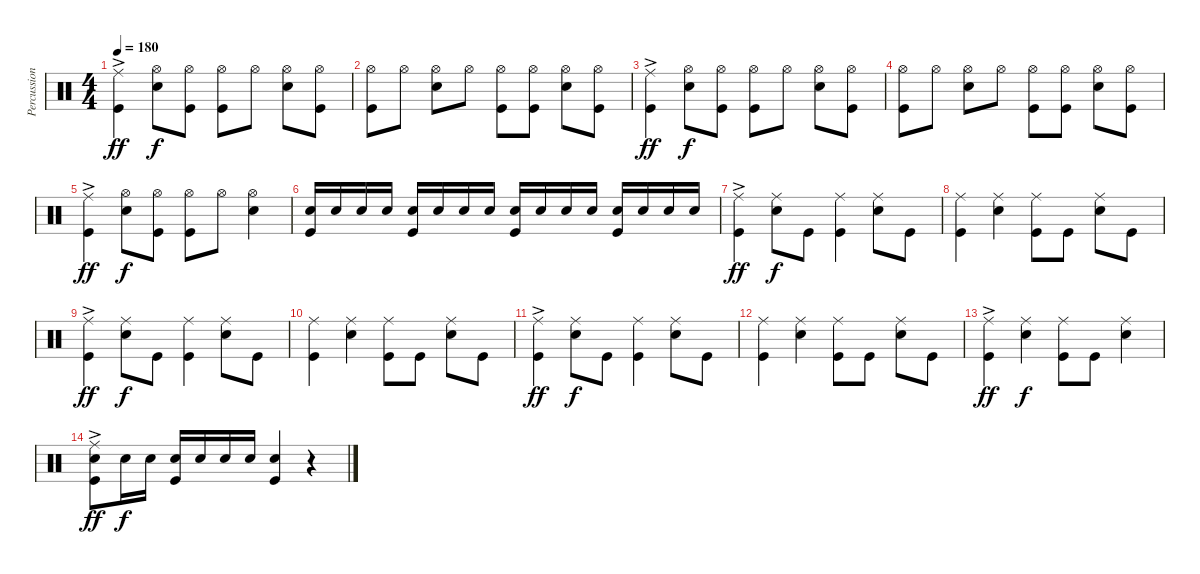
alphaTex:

\track ("Percussion" "Percussion") {instrument percussion}
\staff {score}
\articulation defaults
\ts (4 4)
\tempo 180
\clef neutral
\ks c
("Ride (middle)"{ac} "Kick (hit)").4{dy ff} ("Hi-Hat (open)" "Snare (hit) 2").8{dy f} ("Hi-Hat (open)" "Kick (hit)").8 ("Hi-Hat (open)" "Kick (hit)").8 "Hi-Hat (open)".8 ("Hi-Hat (open)" "Snare (hit) 2").8 ("Hi-Hat (open)" "Kick (hit)").8 |
("Hi-Hat (open)" "Kick (hit)").8 "Hi-Hat (open)".8 ("Hi-Hat (open)" "Snare (hit) 2").8 "Hi-Hat (open)".8 ("Hi-Hat (open)" "Kick (hit)").8 ("Hi-Hat (open)" "Kick (hit)").8 ("Hi-Hat (open)" "Snare (hit) 2").8 ("Hi-Hat (open)" "Kick (hit)").8 |
("Ride (middle)"{ac} "Kick (hit)").4{dy ff} ("Hi-Hat (open)" "Snare (hit) 2").8{dy f} ("Hi-Hat (open)" "Kick (hit)").8 ("Hi-Hat (open)" "Kick (hit)").8 "Hi-Hat (open)".8 ("Hi-Hat (open)" "Snare (hit) 2").8 ("Hi-Hat (open)" "Kick (hit)").8 |
("Hi-Hat (open)" "Kick (hit)").8 "Hi-Hat (open)".8 ("Hi-Hat (open)" "Snare (hit) 2").8 "Hi-Hat (open)".8 ("Hi-Hat (open)" "Kick (hit)").8 ("Hi-Hat (open)" "Kick (hit)").8 ("Hi-Hat (open)" "Snare (hit) 2").8 ("Hi-Hat (open)" "Kick (hit)").8 |
("Ride (middle)"{ac} "Kick (hit)").4{dy ff} ("Hi-Hat (open)" "Snare (hit) 2").8{dy f} ("Hi-Hat (open)" "Kick (hit)").8 ("Hi-Hat (open)" "Kick (hit)").8 "Hi-Hat (open)".8 ("Hi-Hat (open)" "Snare (hit) 2").4 |
("Snare (hit) 2" "Kick (hit)").16 "Snare (hit) 2".16 "Snare (hit) 2".16 "Snare (hit) 2".16 ("Snare (hit) 2" "Kick (hit)").16 "Snare (hit) 2".16 "Snare (hit) 2".16 "Snare (hit) 2".16 ("Snare (hit) 2" "Kick (hit)").16 "Snare (hit) 2".16 "Snare (hit) 2".16 "Snare (hit) 2".16 ("Snare (hit) 2" "Kick (hit)").16 "Snare (hit) 2".16 "Snare (hit) 2".16 "Snare (hit) 2".16 |
("Ride (middle)"{ac} "Kick (hit)").4{dy ff} ("Ride (middle)" "Snare (hit) 2").8{dy f} "Kick (hit)".8 ("Ride (middle)" "Kick (hit)").4 ("Ride (middle)" "Snare (hit) 2").8 "Kick (hit)".8 |
("Ride (middle)" "Kick (hit)").4 ("Ride (middle)" "Snare (hit) 2").4 ("Ride (middle)" "Kick (hit)").8 "Kick (hit)".8 ("Ride (middle)" "Snare (hit) 2").8 "Kick (hit)".8 |
("Ride (middle)"{ac} "Kick (hit)").4{dy ff} ("Ride (middle)" "Snare (hit) 2").8{dy f} "Kick (hit)".8 ("Ride (middle)" "Kick (hit)").4 ("Ride (middle)" "Snare (hit) 2").8 "Kick (hit)".8 |
("Ride (middle)" "Kick (hit)").4 ("Ride (middle)" "Snare (hit) 2").4 ("Ride (middle)" "Kick (hit)").8 "Kick (hit)".8 ("Ride (middle)" "Snare (hit) 2").8 "Kick (hit)".8 |
("Ride (middle)"{ac} "Kick (hit)").4{dy ff} ("Ride (middle)" "Snare (hit) 2").8{dy f} "Kick (hit)".8 ("Ride (middle)" "Kick (hit)").4 ("Ride (middle)" "Snare (hit) 2").8 "Kick (hit)".8 |
("Ride (middle)" "Kick (hit)").4 ("Ride (middle)" "Snare (hit) 2").4 ("Ride (middle)" "Kick (hit)").8 "Kick (hit)".8 ("Ride (middle)" "Snare (hit) 2").8 "Kick (hit)".8 |
("Ride (middle)"{ac} "Kick (hit)").4{dy ff} ("Ride (middle)" "Snare (hit) 2").4{dy f} ("Ride (middle)" "Kick (hit)").8 "Kick (hit)".8 ("Ride (middle)" "Snare (hit) 2").4 |
("Ride (middle)"{ac} "Snare (hit) 2" "Kick (hit)").8{dy ff} "Snare (hit) 2".16{dy f} "Snare (hit) 2".16 ("Snare (hit) 2" "Kick (hit)").16 "Snare (hit) 2".16 "Snare (hit) 2".16 "Snare (hit) 2".16 ("Snare (hit) 2" "Kick (hit)").4 r.4
